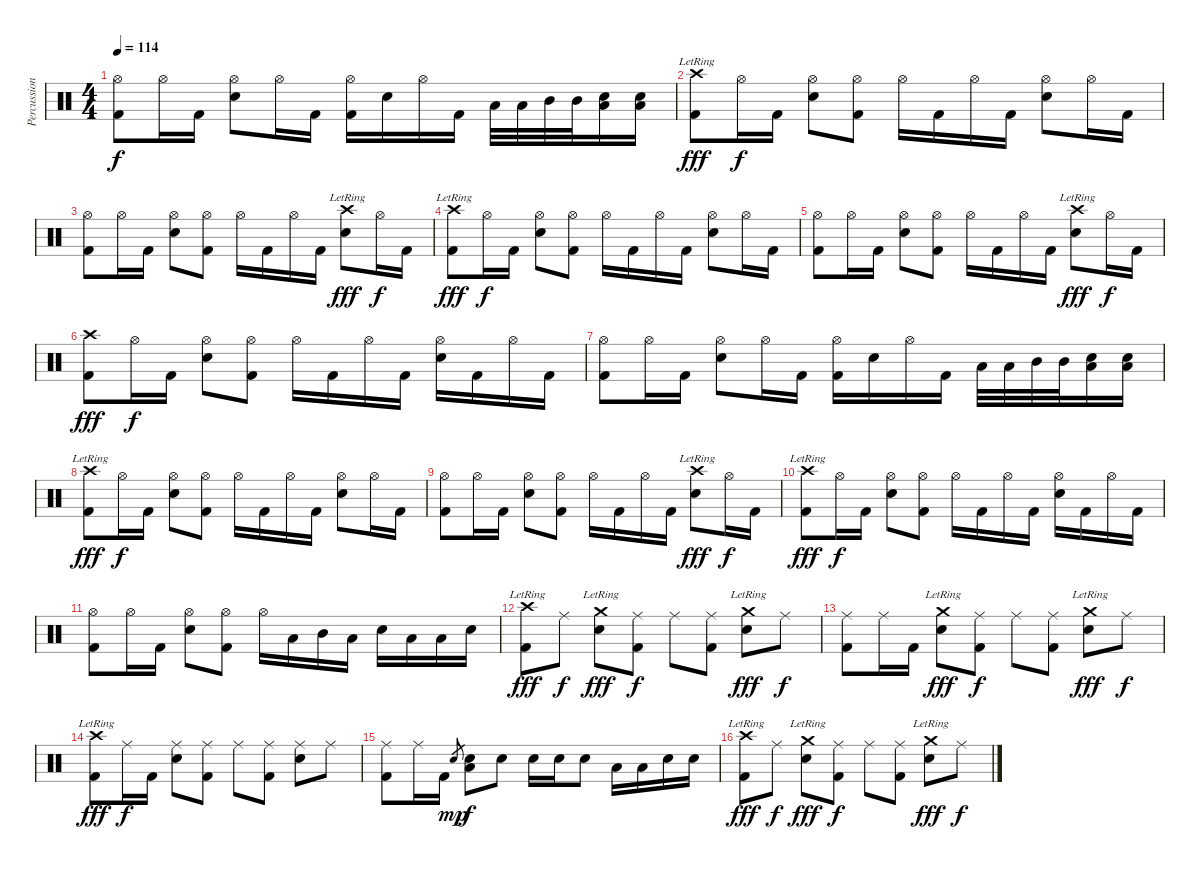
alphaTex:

\track ("Percussion" "Percussion") {instrument percussion}
\staff {score}
\articulation defaults
\ts (4 4)
\tempo 114
\clef neutral
\ks c
("Hi-Hat (open)" "Kick (hit) 2").8{dy f} "Hi-Hat (open)".16 "Kick (hit) 2".16 ("Hi-Hat (open)" "Snare (hit) 2").8 "Hi-Hat (open)".16 "Kick (hit) 2".16 ("Hi-Hat (open)" "Kick (hit) 2").16 "Snare (hit) 2".16 "Hi-Hat (open)".16 "Kick (hit) 2".16 "Low Tom (hit)".32 "Low Tom (hit)".32 "Mid Tom (hit)".32 "Mid Tom (hit)".32 ("Low Tom (hit)" "Snare (hit) 2").16 ("Low Tom (hit)" "Snare (hit) 2").16 |
("Crash high (hit)"{lr} "Kick (hit) 2").8{dy fff} "Hi-Hat (open)".16{dy f} "Kick (hit) 2".16 ("Hi-Hat (open)" "Snare (hit) 2").8 ("Hi-Hat (open)" "Kick (hit) 2").8 "Hi-Hat (open)".16 "Kick (hit) 2".16 "Hi-Hat (open)".16 "Kick (hit) 2".16 ("Hi-Hat (open)" "Snare (hit) 2").8 "Hi-Hat (open)".16 "Kick (hit) 2".16 |
("Hi-Hat (open)" "Kick (hit) 2").8 "Hi-Hat (open)".16 "Kick (hit) 2".16 ("Hi-Hat (open)" "Snare (hit) 2").8 ("Hi-Hat (open)" "Kick (hit) 2").8 "Hi-Hat (open)".16 "Kick (hit) 2".16 "Hi-Hat (open)".16 "Kick (hit) 2".16 ("Crash high (hit)"{lr} "Snare (hit) 2").8{dy fff} "Hi-Hat (open)".16{dy f} "Kick (hit) 2".16 |
("Crash high (hit)"{lr} "Kick (hit) 2").8{dy fff} "Hi-Hat (open)".16{dy f} "Kick (hit) 2".16 ("Hi-Hat (open)" "Snare (hit) 2").8 ("Hi-Hat (open)" "Kick (hit) 2").8 "Hi-Hat (open)".16 "Kick (hit) 2".16 "Hi-Hat (open)".16 "Kick (hit) 2".16 ("Hi-Hat (open)" "Snare (hit) 2").8 "Hi-Hat (open)".16 "Kick (hit) 2".16 |
("Hi-Hat (open)" "Kick (hit) 2").8 "Hi-Hat (open)".16 "Kick (hit) 2".16 ("Hi-Hat (open)" "Snare (hit) 2").8 ("Hi-Hat (open)" "Kick (hit) 2").8 "Hi-Hat (open)".16 "Kick (hit) 2".16 "Hi-Hat (open)".16 "Kick (hit) 2".16 ("Crash high (hit)"{lr} "Snare (hit) 2").8{dy fff} "Hi-Hat (open)".16{dy f} "Kick (hit) 2".16 |
("Crash high (hit)" "Kick (hit) 2").8{dy fff} "Hi-Hat (open)".16{dy f} "Kick (hit) 2".16 ("Hi-Hat (open)" "Snare (hit) 2").8 ("Hi-Hat (open)" "Kick (hit) 2").8 "Hi-Hat (open)".16 "Kick (hit) 2".16 "Hi-Hat (open)".16 "Kick (hit) 2".16 ("Hi-Hat (open)" "Snare (hit) 2").16 "Kick (hit) 2".16 "Hi-Hat (open)".16 "Kick (hit) 2".16 |
("Hi-Hat (open)" "Kick (hit) 2").8 "Hi-Hat (open)".16 "Kick (hit) 2".16 ("Hi-Hat (open)" "Snare (hit) 2").8 "Hi-Hat (open)".16 "Kick (hit) 2".16 ("Hi-Hat (open)" "Kick (hit) 2").16 "Snare (hit) 2".16 "Hi-Hat (open)".16 "Kick (hit) 2".16 "Low Tom (hit)".32 "Low Tom (hit)".32 "Mid Tom (hit)".32 "Mid Tom (hit)".32 ("Low Tom (hit)" "Snare (hit) 2").16 ("Low Tom (hit)" "Snare (hit) 2").16 |
("Crash high (hit)"{lr} "Kick (hit) 2").8{dy fff} "Hi-Hat (open)".16{dy f} "Kick (hit) 2".16 ("Hi-Hat (open)" "Snare (hit) 2").8 ("Hi-Hat (open)" "Kick (hit) 2").8 "Hi-Hat (open)".16 "Kick (hit) 2".16 "Hi-Hat (open)".16 "Kick (hit) 2".16 ("Hi-Hat (open)" "Snare (hit) 2").8 "Hi-Hat (open)".16 "Kick (hit) 2".16 |
("Hi-Hat (open)" "Kick (hit) 2").8 "Hi-Hat (open)".16 "Kick (hit) 2".16 ("Hi-Hat (open)" "Snare (hit) 2").8 ("Hi-Hat (open)" "Kick (hit) 2").8 "Hi-Hat (open)".16 "Kick (hit) 2".16 "Hi-Hat (open)".16 "Kick (hit) 2".16 ("Crash high (hit)"{lr} "Snare (hit) 2").8{dy fff} "Hi-Hat (open)".16{dy f} "Kick (hit) 2".16 |
("Crash high (hit)"{lr} "Kick (hit) 2").8{dy fff} "Hi-Hat (open)".16{dy f} "Kick (hit) 2".16 ("Hi-Hat (open)" "Snare (hit) 2").8 ("Hi-Hat (open)" "Kick (hit) 2").8 "Hi-Hat (open)".16 "Kick (hit) 2".16 "Hi-Hat (open)".16 "Kick (hit) 2".16 ("Hi-Hat (open)" "Snare (hit) 2").16 "Kick (hit) 2".16 "Hi-Hat (open)".16 "Kick (hit) 2".16 |
("Hi-Hat (open)" "Kick (hit) 2").8 "Hi-Hat (open)".16 "Kick (hit) 2".16 ("Hi-Hat (open)" "Snare (hit) 2").8 ("Hi-Hat (open)" "Kick (hit) 2").8 "Hi-Hat (open)".16 "Low Tom (hit)".16 "Mid Tom (hit)".16 "Low Tom (hit)".16 "Snare (hit) 2".16 "Low Tom (hit)".16 "Low Tom (hit)".16 "Snare (hit) 2".16 |
("Crash high (hit)"{lr} "Kick (hit) 2").8{dy fff} "Ride (middle)".8{dy f} ("Crash medium (hit)"{lr} "Snare (hit) 2").8{dy fff} ("Ride (middle)" "Kick (hit) 2").8{dy f} "Ride (middle)".8 ("Ride (middle)" "Kick (hit) 2").8 ("Crash medium (hit)"{lr} "Snare (hit) 2").8{dy fff} "Ride (middle)".8{dy f} |
("Ride (middle)" "Kick (hit) 2").8 "Ride (middle)".16 "Kick (hit) 2".16 ("Crash medium (hit)"{lr} "Snare (hit) 2").8{dy fff} ("Ride (middle)" "Kick (hit) 2").8{dy f} "Ride (middle)".8 ("Ride (middle)" "Kick (hit) 2").8 ("Crash medium (hit)"{lr} "Snare (hit) 2").8{dy fff} "Ride (middle)".8{dy f} |
("Crash high (hit)"{lr} "Kick (hit) 2").8{dy fff} "Ride (middle)".16{dy f} "Kick (hit) 2".16 ("Ride (middle)" "Snare (hit) 2").8 ("Ride (middle)" "Kick (hit) 2").8 "Ride (middle)".8 ("Ride (middle)" "Kick (hit) 2").8 ("Ride (middle)" "Snare (hit) 2").8 "Ride (middle)".8 |
("Ride (middle)" "Kick (hit) 2").8 "Ride (middle)".16 "Kick (hit) 2".16 "Snare (hit) 2".8{gr dy mp} ("Low Tom (hit)" "Snare (hit) 2").8{dy f} "Snare (hit) 2".8 "Snare (hit) 2".16 "Snare (hit) 2".16 "Snare (hit) 2".8 "Low Tom (hit)".16 "Low Tom (hit)".16 "Snare (hit) 2".16 "Snare (hit) 2".16 |
("Crash high (hit)"{lr} "Kick (hit) 2").8{dy fff} "Ride (middle)".8{dy f} ("Crash medium (hit)"{lr} "Snare (hit) 2").8{dy fff} ("Ride (middle)" "Kick (hit) 2").8{dy f} "Ride (middle)".8 ("Ride (middle)" "Kick (hit) 2").8 ("Crash medium (hit)"{lr} "Snare (hit) 2").8{dy fff} "Ride (middle)".8{dy f}
